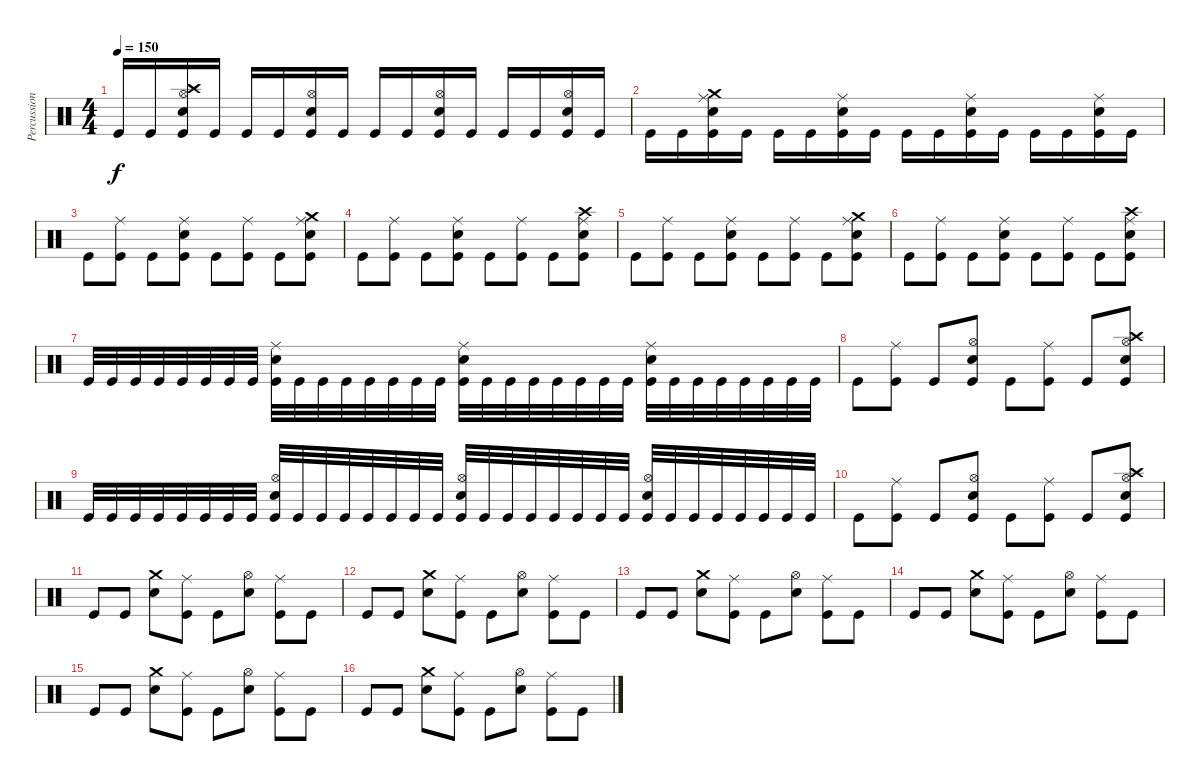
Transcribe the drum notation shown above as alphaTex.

\track ("Percussion" "Percussion") {instrument percussion}
\staff {score}
\articulation defaults
\ts (4 4)
\tempo 150
\clef neutral
\ks c "Kick (hit)".16{dy f} "Kick (hit)".16
("Crash high (hit)" "Hi-Hat (open)" "Electric Snare (hit)" "Kick (hit)").16 "Kick (hit)".16 "Kick (hit)".16 "Kick (hit)".16 ("Electric Snare (hit)" "Hi-Hat (open)" "Kick (hit)").16 "Kick (hit)".16 "Kick (hit)".16 "Kick (hit)".16 ("Hi-Hat (open)" "Electric Snare (hit)" "Kick (hit)").16 "Kick (hit)".16 "Kick (hit)".16 "Kick (hit)".16 ("Hi-Hat (open)" "Electric Snare (hit)" "Kick (hit)").16 "Kick (hit)".16 |
"Kick (hit)".16 "Kick (hit)".16 ("Crash medium (hit)" "Ride (middle)" "Electric Snare (hit)" "Kick (hit)").16 "Kick (hit)".16 "Kick (hit)".16 "Kick (hit)".16 ("Ride (middle)" "Electric Snare (hit)" "Kick (hit)").16 "Kick (hit)".16 "Kick (hit)".16 "Kick (hit)".16 ("Ride (middle)" "Electric Snare (hit)" "Kick (hit)").16 "Kick (hit)".16 "Kick (hit)".16 "Kick (hit)".16 ("Ride (middle)" "Electric Snare (hit)" "Kick (hit)").16 "Kick (hit)".16 |
"Kick (hit)".8 ("Ride (middle)" "Kick (hit)").8 "Kick (hit)".8 ("Ride (middle)" "Electric Snare (hit)" "Kick (hit)").8 "Kick (hit)".8 ("Ride (middle)" "Kick (hit)").8 "Kick (hit)".8 ("Crash medium (hit)" "Ride (middle)" "Electric Snare (hit)" "Kick (hit)").8 |
"Kick (hit)".8 ("Ride (middle)" "Kick (hit)").8 "Kick (hit)".8 ("Ride (middle)" "Electric Snare (hit)" "Kick (hit)").8 "Kick (hit)".8 ("Ride (middle)" "Kick (hit)").8 "Kick (hit)".8 ("Crash high (hit)" "Ride (middle)" "Electric Snare (hit)" "Kick (hit)").8 |
"Kick (hit)".8 ("Ride (middle)" "Kick (hit)").8 "Kick (hit)".8 ("Ride (middle)" "Electric Snare (hit)" "Kick (hit)").8 "Kick (hit)".8 ("Ride (middle)" "Kick (hit)").8 "Kick (hit)".8 ("Crash medium (hit)" "Ride (middle)" "Electric Snare (hit)" "Kick (hit)").8 |
"Kick (hit)".8 ("Ride (middle)" "Kick (hit)").8 "Kick (hit)".8 ("Ride (middle)" "Electric Snare (hit)" "Kick (hit)").8 "Kick (hit)".8 ("Ride (middle)" "Kick (hit)").8 "Kick (hit)".8 ("Crash high (hit)" "Ride (middle)" "Electric Snare (hit)" "Kick (hit)").8 |
"Kick (hit)".32 "Kick (hit)".32 "Kick (hit)".32 "Kick (hit)".32 "Kick (hit)".32 "Kick (hit)".32 "Kick (hit)".32 "Kick (hit)".32 ("Ride (middle)" "Electric Snare (hit)" "Kick (hit)").32 "Kick (hit)".32 "Kick (hit)".32 "Kick (hit)".32 "Kick (hit)".32 "Kick (hit)".32 "Kick (hit)".32 "Kick (hit)".32 ("Ride (middle)" "Electric Snare (hit)" "Kick (hit)").32 "Kick (hit)".32 "Kick (hit)".32 "Kick (hit)".32 "Kick (hit)".32 "Kick (hit)".32 "Kick (hit)".32 "Kick (hit)".32 ("Ride (middle)" "Electric Snare (hit)" "Kick (hit)").32 "Kick (hit)".32 "Kick (hit)".32 "Kick (hit)".32 "Kick (hit)".32 "Kick (hit)".32 "Kick (hit)".32 "Kick (hit)".32 |
"Kick (hit)".8 ("Ride (middle)" "Kick (hit)").8 "Kick (hit)".8 ("Hi-Hat (open)" "Electric Snare (hit)" "Kick (hit)").8 "Kick (hit)".8 ("Ride (middle)" "Kick (hit)").8 "Kick (hit)".8 ("Crash high (hit)" "Hi-Hat (open)" "Electric Snare (hit)" "Kick (hit)").8 |
"Kick (hit)".32 "Kick (hit)".32 "Kick (hit)".32 "Kick (hit)".32 "Kick (hit)".32 "Kick (hit)".32 "Kick (hit)".32 "Kick (hit)".32 ("Hi-Hat (open)" "Electric Snare (hit)" "Kick (hit)").32 "Kick (hit)".32 "Kick (hit)".32 "Kick (hit)".32 "Kick (hit)".32 "Kick (hit)".32 "Kick (hit)".32 "Kick (hit)".32 ("Hi-Hat (open)" "Electric Snare (hit)" "Kick (hit)").32 "Kick (hit)".32 "Kick (hit)".32 "Kick (hit)".32 "Kick (hit)".32 "Kick (hit)".32 "Kick (hit)".32 "Kick (hit)".32 ("Hi-Hat (open)" "Electric Snare (hit)" "Kick (hit)").32 "Kick (hit)".32 "Kick (hit)".32 "Kick (hit)".32 "Kick (hit)".32 "Kick (hit)".32 "Kick (hit)".32 "Kick (hit)".32 |
"Kick (hit)".8 ("Ride (middle)" "Kick (hit)").8 "Kick (hit)".8 ("Hi-Hat (open)" "Electric Snare (hit)" "Kick (hit)").8 "Kick (hit)".8 ("Ride (middle)" "Kick (hit)").8 "Kick (hit)".8 ("Crash high (hit)" "Hi-Hat (open)" "Electric Snare (hit)" "Kick (hit)").8 |
"Kick (hit)".8 "Kick (hit)".8 ("Crash medium (hit)" "Electric Snare (hit)").8 ("Ride (middle)" "Kick (hit)").8 "Kick (hit)".8 ("Hi-Hat (open)" "Electric Snare (hit)").8 ("Ride (middle)" "Kick (hit)").8 "Kick (hit)".8 |
"Kick (hit)".8 "Kick (hit)".8 ("Crash medium (hit)" "Electric Snare (hit)").8 ("Ride (middle)" "Kick (hit)").8 "Kick (hit)".8 ("Hi-Hat (open)" "Electric Snare (hit)").8 ("Ride (middle)" "Kick (hit)").8 "Kick (hit)".8 |
"Kick (hit)".8 "Kick (hit)".8 ("Crash medium (hit)" "Electric Snare (hit)").8 ("Ride (middle)" "Kick (hit)").8 "Kick (hit)".8 ("Hi-Hat (open)" "Electric Snare (hit)").8 ("Ride (middle)" "Kick (hit)").8 "Kick (hit)".8 |
"Kick (hit)".8 "Kick (hit)".8 ("Crash medium (hit)" "Electric Snare (hit)").8 ("Ride (middle)" "Kick (hit)").8 "Kick (hit)".8 ("Hi-Hat (open)" "Electric Snare (hit)").8 ("Ride (middle)" "Kick (hit)").8 "Kick (hit)".8 |
"Kick (hit)".8 "Kick (hit)".8 ("Crash medium (hit)" "Electric Snare (hit)").8 ("Ride (middle)" "Kick (hit)").8 "Kick (hit)".8 ("Hi-Hat (open)" "Electric Snare (hit)").8 ("Ride (middle)" "Kick (hit)").8 "Kick (hit)".8 |
"Kick (hit)".8 "Kick (hit)".8 ("Crash medium (hit)" "Electric Snare (hit)").8 ("Ride (middle)" "Kick (hit)").8 "Kick (hit)".8 ("Hi-Hat (open)" "Electric Snare (hit)").8 ("Ride (middle)" "Kick (hit)").8 "Kick (hit)".8
